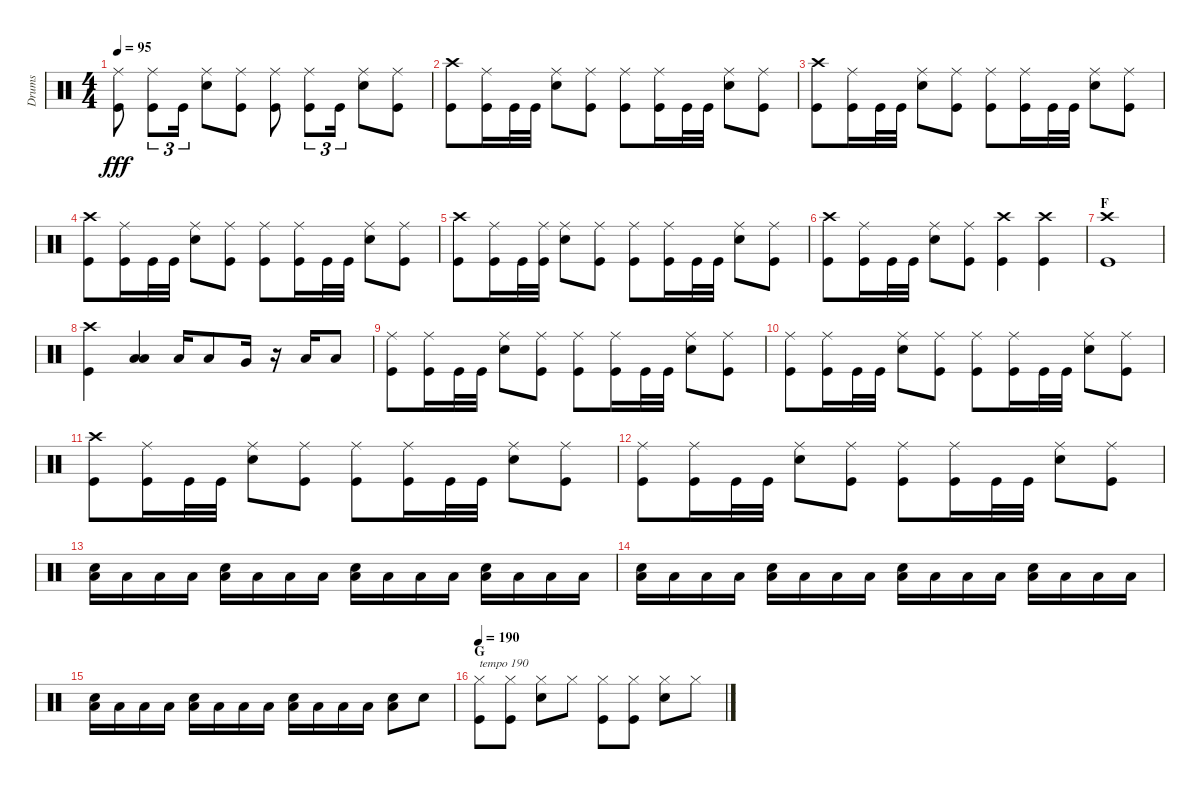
\track ("Drums" "Drums") {instrument percussion}
\staff {score}
\articulation defaults
\ts (4 4)
\tempo 95
\clef neutral
\ks c
("Ride (middle)" "Kick (hit)").8{dy fff} ("Ride (middle)" "Kick (hit)").8{tu (3 2)} "Kick (hit)".16{tu (3 2)} ("Ride (middle)" "Snare (hit) 2").8 ("Ride (middle)" "Kick (hit)").8 ("Ride (middle)" "Kick (hit)").8 ("Ride (middle)" "Kick (hit)").8{tu (3 2)} "Kick (hit)".16{tu (3 2)} ("Ride (middle)" "Snare (hit) 2").8 ("Ride (middle)" "Kick (hit)").8 |
("Crash high (hit)" "Kick (hit)").8 ("Ride (middle)" "Kick (hit)").16 "Kick (hit)".32 "Kick (hit)".32 ("Ride (middle)" "Snare (hit) 2").8 ("Ride (middle)" "Kick (hit)").8 ("Ride (middle)" "Kick (hit)").8 ("Ride (middle)" "Kick (hit)").16 "Kick (hit)".32 "Kick (hit)".32 ("Ride (middle)" "Snare (hit) 2").8 ("Ride (middle)" "Kick (hit)").8 |
("Crash high (hit)" "Kick (hit)").8 ("Ride (middle)" "Kick (hit)").16 "Kick (hit)".32 "Kick (hit)".32 ("Ride (middle)" "Snare (hit) 2").8 ("Ride (middle)" "Kick (hit)").8 ("Ride (middle)" "Kick (hit)").8 ("Ride (middle)" "Kick (hit)").16 "Kick (hit)".32 "Kick (hit)".32 ("Ride (middle)" "Snare (hit) 2").8 ("Ride (middle)" "Kick (hit)").8 |
("Crash high (hit)" "Kick (hit)").8 ("Ride (middle)" "Kick (hit)").16 "Kick (hit)".32 "Kick (hit)".32 ("Ride (middle)" "Snare (hit) 2").8 ("Ride (middle)" "Kick (hit)").8 ("Ride (middle)" "Kick (hit)").8 ("Ride (middle)" "Kick (hit)").16 "Kick (hit)".32 "Kick (hit)".32 ("Ride (middle)" "Snare (hit) 2").8 ("Ride (middle)" "Kick (hit)").8 |
("Crash high (hit)" "Kick (hit)").8 ("Ride (middle)" "Kick (hit)").16 "Kick (hit)".32 ("Ride (middle)" "Kick (hit)").32 ("Ride (middle)" "Snare (hit) 2").8 ("Ride (middle)" "Kick (hit)").8 ("Ride (middle)" "Kick (hit)").8 ("Ride (middle)" "Kick (hit)").16 "Kick (hit)".32 "Kick (hit)".32 ("Ride (middle)" "Snare (hit) 2").8 ("Ride (middle)" "Kick (hit)").8 |
("Crash high (hit)" "Kick (hit)").8 ("Ride (middle)" "Kick (hit)").16 "Kick (hit)".32 "Kick (hit)".32 ("Ride (middle)" "Snare (hit) 2").8 ("Ride (middle)" "Kick (hit)").8 ("Crash high (hit)" "Kick (hit)").4 ("Crash high (hit)" "Kick (hit)").4 |
\section ("" "F")
("Crash high (hit)" "Kick (hit)").1 |
("Crash high (hit)" "Kick (hit)").4 ("Low Floor Tom (hit)" "Low Floor Tom (hit)").4 "Low Tom (hit)".16 "Low Tom (hit)".8 "Very Low Tom (hit)".16 r.16 "Low Floor Tom (hit)".16 "Low Floor Tom (hit)".8 |
("Ride (middle)" "Kick (hit)").8 ("Ride (middle)" "Kick (hit)").16 "Kick (hit)".32 "Kick (hit)".32 ("Ride (middle)" "Snare (hit) 2").8 ("Ride (middle)" "Kick (hit)").8 ("Ride (middle)" "Kick (hit)").8 ("Ride (middle)" "Kick (hit)").16 "Kick (hit)".32 "Kick (hit)".32 ("Ride (middle)" "Snare (hit) 2").8 ("Ride (middle)" "Kick (hit)").8 |
("Ride (middle)" "Kick (hit)").8 ("Ride (middle)" "Kick (hit)").16 "Kick (hit)".32 "Kick (hit)".32 ("Ride (middle)" "Snare (hit) 2").8 ("Ride (middle)" "Kick (hit)").8 ("Ride (middle)" "Kick (hit)").8 ("Ride (middle)" "Kick (hit)").16 "Kick (hit)".32 "Kick (hit)".32 ("Ride (middle)" "Snare (hit) 2").8 ("Ride (middle)" "Kick (hit)").8 |
("Crash high (hit)" "Kick (hit)").8 ("Ride (middle)" "Kick (hit)").16 "Kick (hit)".32 "Kick (hit)".32 ("Ride (middle)" "Snare (hit) 2").8 ("Ride (middle)" "Kick (hit)").8 ("Ride (middle)" "Kick (hit)").8 ("Ride (middle)" "Kick (hit)").16 "Kick (hit)".32 "Kick (hit)".32 ("Ride (middle)" "Snare (hit) 2").8 ("Ride (middle)" "Kick (hit)").8 |
("Ride (middle)" "Kick (hit)").8 ("Ride (middle)" "Kick (hit)").16 "Kick (hit)".32 "Kick (hit)".32 ("Ride (middle)" "Snare (hit) 2").8 ("Ride (middle)" "Kick (hit)").8 ("Ride (middle)" "Kick (hit)").8 ("Ride (middle)" "Kick (hit)").16 "Kick (hit)".32 "Kick (hit)".32 ("Ride (middle)" "Snare (hit) 2").8 ("Ride (middle)" "Kick (hit)").8 |
("Low Floor Tom (hit)" "Snare (hit) 2").16 "Low Floor Tom (hit)".16 "Low Floor Tom (hit)".16 "Low Floor Tom (hit)".16 ("Low Floor Tom (hit)" "Snare (hit) 2").16 "Low Floor Tom (hit)".16 "Low Floor Tom (hit)".16 "Low Floor Tom (hit)".16 ("Low Floor Tom (hit)" "Snare (hit) 2").16 "Low Floor Tom (hit)".16 "Low Floor Tom (hit)".16 "Low Floor Tom (hit)".16 ("Low Floor Tom (hit)" "Snare (hit) 2").16 "Low Floor Tom (hit)".16 "Low Floor Tom (hit)".16 "Low Floor Tom (hit)".16 |
("Low Floor Tom (hit)" "Snare (hit) 2").16 "Low Floor Tom (hit)".16 "Low Floor Tom (hit)".16 "Low Floor Tom (hit)".16 ("Low Floor Tom (hit)" "Snare (hit) 2").16 "Low Floor Tom (hit)".16 "Low Floor Tom (hit)".16 "Low Floor Tom (hit)".16 ("Low Floor Tom (hit)" "Snare (hit) 2").16 "Low Floor Tom (hit)".16 "Low Floor Tom (hit)".16 "Low Floor Tom (hit)".16 ("Low Floor Tom (hit)" "Snare (hit) 2").16 "Low Floor Tom (hit)".16 "Low Floor Tom (hit)".16 "Low Floor Tom (hit)".16 |
("Low Floor Tom (hit)" "Snare (hit) 2").16 "Low Floor Tom (hit)".16 "Low Floor Tom (hit)".16 "Low Floor Tom (hit)".16 ("Low Floor Tom (hit)" "Snare (hit) 2").16 "Low Floor Tom (hit)".16 "Low Floor Tom (hit)".16 "Low Floor Tom (hit)".16 ("Low Floor Tom (hit)" "Snare (hit) 2").16 "Low Floor Tom (hit)".16 "Low Floor Tom (hit)".16 "Low Floor Tom (hit)".16 ("Low Floor Tom (hit)" "Snare (hit) 2").8 "Snare (hit) 2".8 |
\section ("" "G")
\tempo 190
("Hi-Hat (closed)" "Kick (hit)").8{txt "tempo 190"} ("Hi-Hat (closed)" "Kick (hit)").8 ("Hi-Hat (closed)" "Snare (hit) 2").8 "Hi-Hat (closed)".8 ("Hi-Hat (closed)" "Kick (hit)").8 ("Hi-Hat (closed)" "Kick (hit)").8 ("Hi-Hat (closed)" "Snare (hit) 2").8 "Hi-Hat (closed)".8
